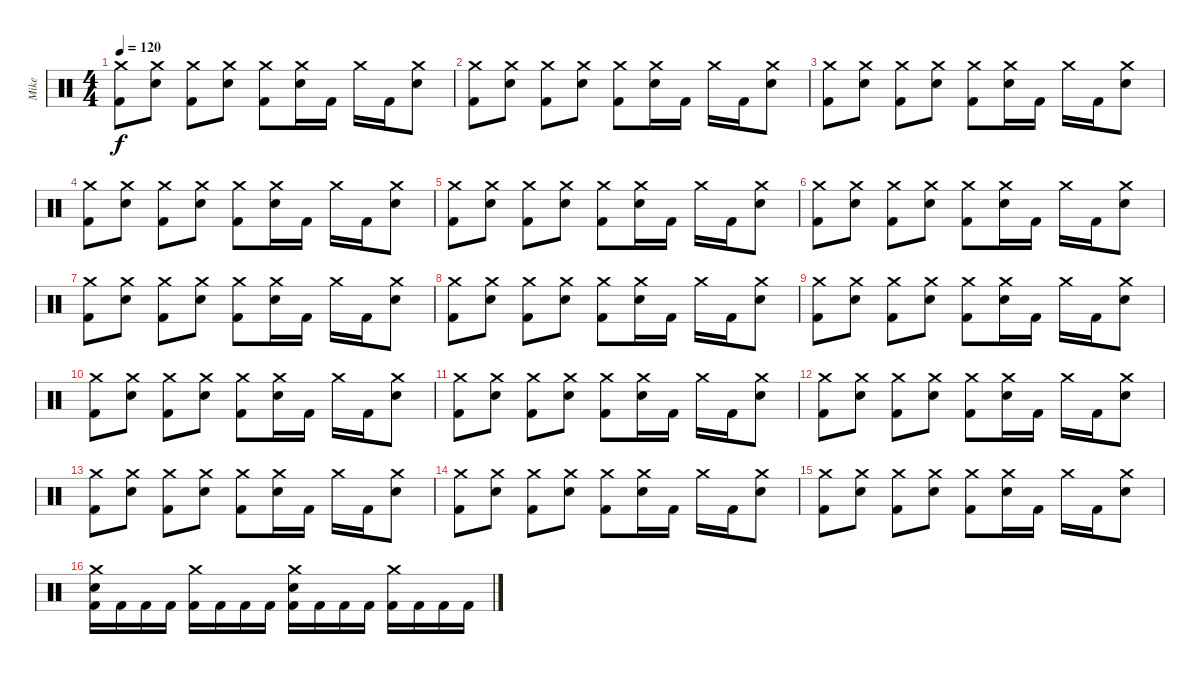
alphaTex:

\track ("Mike" "Mike") {instrument percussion}
\staff {score}
\articulation defaults
\ts (4 4)
\tempo 120
\clef neutral
\ks c
("Crash medium (hit)" "Kick (hit) 2").8{dy f} ("Crash medium (hit)" "Electric Snare (hit)").8 ("Crash medium (hit)" "Kick (hit) 2").8 ("Crash medium (hit)" "Electric Snare (hit)").8 ("Crash medium (hit)" "Kick (hit) 2").8 ("Crash medium (hit)" "Electric Snare (hit)").16 "Kick (hit) 2".16 "Crash medium (hit)".16 "Kick (hit) 2".16 ("Crash medium (hit)" "Electric Snare (hit)").8 |
("Crash medium (hit)" "Kick (hit) 2").8 ("Crash medium (hit)" "Electric Snare (hit)").8 ("Crash medium (hit)" "Kick (hit) 2").8 ("Crash medium (hit)" "Electric Snare (hit)").8 ("Crash medium (hit)" "Kick (hit) 2").8 ("Crash medium (hit)" "Electric Snare (hit)").16 "Kick (hit) 2".16 "Crash medium (hit)".16 "Kick (hit) 2".16 ("Crash medium (hit)" "Electric Snare (hit)").8 |
("Crash medium (hit)" "Kick (hit) 2").8 ("Crash medium (hit)" "Electric Snare (hit)").8 ("Crash medium (hit)" "Kick (hit) 2").8 ("Crash medium (hit)" "Electric Snare (hit)").8 ("Crash medium (hit)" "Kick (hit) 2").8 ("Crash medium (hit)" "Electric Snare (hit)").16 "Kick (hit) 2".16 "Crash medium (hit)".16 "Kick (hit) 2".16 ("Crash medium (hit)" "Electric Snare (hit)").8 |
("Crash medium (hit)" "Kick (hit) 2").8 ("Crash medium (hit)" "Electric Snare (hit)").8 ("Crash medium (hit)" "Kick (hit) 2").8 ("Crash medium (hit)" "Electric Snare (hit)").8 ("Crash medium (hit)" "Kick (hit) 2").8 ("Crash medium (hit)" "Electric Snare (hit)").16 "Kick (hit) 2".16 "Crash medium (hit)".16 "Kick (hit) 2".16 ("Crash medium (hit)" "Electric Snare (hit)").8 |
("Crash medium (hit)" "Kick (hit) 2").8 ("Crash medium (hit)" "Electric Snare (hit)").8 ("Crash medium (hit)" "Kick (hit) 2").8 ("Crash medium (hit)" "Electric Snare (hit)").8 ("Crash medium (hit)" "Kick (hit) 2").8 ("Crash medium (hit)" "Electric Snare (hit)").16 "Kick (hit) 2".16 "Crash medium (hit)".16 "Kick (hit) 2".16 ("Crash medium (hit)" "Electric Snare (hit)").8 |
("Crash medium (hit)" "Kick (hit) 2").8 ("Crash medium (hit)" "Electric Snare (hit)").8 ("Crash medium (hit)" "Kick (hit) 2").8 ("Crash medium (hit)" "Electric Snare (hit)").8 ("Crash medium (hit)" "Kick (hit) 2").8 ("Crash medium (hit)" "Electric Snare (hit)").16 "Kick (hit) 2".16 "Crash medium (hit)".16 "Kick (hit) 2".16 ("Crash medium (hit)" "Electric Snare (hit)").8 |
("Crash medium (hit)" "Kick (hit) 2").8 ("Crash medium (hit)" "Electric Snare (hit)").8 ("Crash medium (hit)" "Kick (hit) 2").8 ("Crash medium (hit)" "Electric Snare (hit)").8 ("Crash medium (hit)" "Kick (hit) 2").8 ("Crash medium (hit)" "Electric Snare (hit)").16 "Kick (hit) 2".16 "Crash medium (hit)".16 "Kick (hit) 2".16 ("Crash medium (hit)" "Electric Snare (hit)").8 |
("Crash medium (hit)" "Kick (hit) 2").8 ("Crash medium (hit)" "Electric Snare (hit)").8 ("Crash medium (hit)" "Kick (hit) 2").8 ("Crash medium (hit)" "Electric Snare (hit)").8 ("Crash medium (hit)" "Kick (hit) 2").8 ("Crash medium (hit)" "Electric Snare (hit)").16 "Kick (hit) 2".16 "Crash medium (hit)".16 "Kick (hit) 2".16 ("Crash medium (hit)" "Electric Snare (hit)").8 |
("Crash medium (hit)" "Kick (hit) 2").8 ("Crash medium (hit)" "Electric Snare (hit)").8 ("Crash medium (hit)" "Kick (hit) 2").8 ("Crash medium (hit)" "Electric Snare (hit)").8 ("Crash medium (hit)" "Kick (hit) 2").8 ("Crash medium (hit)" "Electric Snare (hit)").16 "Kick (hit) 2".16 "Crash medium (hit)".16 "Kick (hit) 2".16 ("Crash medium (hit)" "Electric Snare (hit)").8 |
("Crash medium (hit)" "Kick (hit) 2").8 ("Crash medium (hit)" "Electric Snare (hit)").8 ("Crash medium (hit)" "Kick (hit) 2").8 ("Crash medium (hit)" "Electric Snare (hit)").8 ("Crash medium (hit)" "Kick (hit) 2").8 ("Crash medium (hit)" "Electric Snare (hit)").16 "Kick (hit) 2".16 "Crash medium (hit)".16 "Kick (hit) 2".16 ("Crash medium (hit)" "Electric Snare (hit)").8 |
("Crash medium (hit)" "Kick (hit) 2").8 ("Crash medium (hit)" "Electric Snare (hit)").8 ("Crash medium (hit)" "Kick (hit) 2").8 ("Crash medium (hit)" "Electric Snare (hit)").8 ("Crash medium (hit)" "Kick (hit) 2").8 ("Crash medium (hit)" "Electric Snare (hit)").16 "Kick (hit) 2".16 "Crash medium (hit)".16 "Kick (hit) 2".16 ("Crash medium (hit)" "Electric Snare (hit)").8 |
("Crash medium (hit)" "Kick (hit) 2").8 ("Crash medium (hit)" "Electric Snare (hit)").8 ("Crash medium (hit)" "Kick (hit) 2").8 ("Crash medium (hit)" "Electric Snare (hit)").8 ("Crash medium (hit)" "Kick (hit) 2").8 ("Crash medium (hit)" "Electric Snare (hit)").16 "Kick (hit) 2".16 "Crash medium (hit)".16 "Kick (hit) 2".16 ("Crash medium (hit)" "Electric Snare (hit)").8 |
("Crash medium (hit)" "Kick (hit) 2").8 ("Crash medium (hit)" "Electric Snare (hit)").8 ("Crash medium (hit)" "Kick (hit) 2").8 ("Crash medium (hit)" "Electric Snare (hit)").8 ("Crash medium (hit)" "Kick (hit) 2").8 ("Crash medium (hit)" "Electric Snare (hit)").16 "Kick (hit) 2".16 "Crash medium (hit)".16 "Kick (hit) 2".16 ("Crash medium (hit)" "Electric Snare (hit)").8 |
("Crash medium (hit)" "Kick (hit) 2").8 ("Crash medium (hit)" "Electric Snare (hit)").8 ("Crash medium (hit)" "Kick (hit) 2").8 ("Crash medium (hit)" "Electric Snare (hit)").8 ("Crash medium (hit)" "Kick (hit) 2").8 ("Crash medium (hit)" "Electric Snare (hit)").16 "Kick (hit) 2".16 "Crash medium (hit)".16 "Kick (hit) 2".16 ("Crash medium (hit)" "Electric Snare (hit)").8 |
("Crash medium (hit)" "Kick (hit) 2").8 ("Crash medium (hit)" "Electric Snare (hit)").8 ("Crash medium (hit)" "Kick (hit) 2").8 ("Crash medium (hit)" "Electric Snare (hit)").8 ("Crash medium (hit)" "Kick (hit) 2").8 ("Crash medium (hit)" "Electric Snare (hit)").16 "Kick (hit) 2".16 "Crash medium (hit)".16 "Kick (hit) 2".16 ("Crash medium (hit)" "Electric Snare (hit)").8 |
("Crash medium (hit)" "Electric Snare (hit)" "Kick (hit) 2").16 "Kick (hit) 2".16 "Kick (hit) 2".16 "Kick (hit) 2".16 ("Crash medium (hit)" "Kick (hit) 2").16 "Kick (hit) 2".16 "Kick (hit) 2".16 "Kick (hit) 2".16 ("Crash medium (hit)" "Electric Snare (hit)" "Kick (hit) 2").16 "Kick (hit) 2".16 "Kick (hit) 2".16 "Kick (hit) 2".16 ("Crash medium (hit)" "Kick (hit) 2").16 "Kick (hit) 2".16 "Kick (hit) 2".16 "Kick (hit) 2".16
